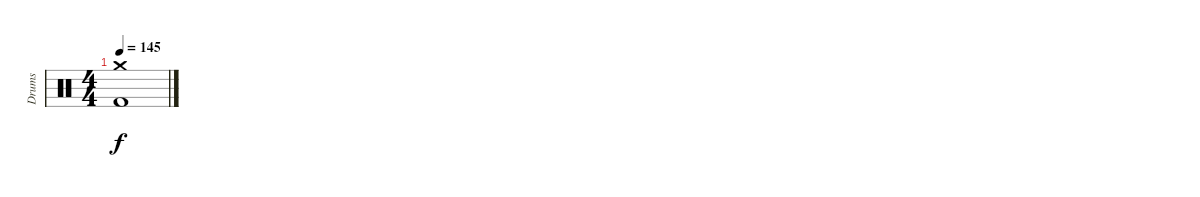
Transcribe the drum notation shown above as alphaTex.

\track ("Drums" "Drums") {instrument percussion}
\staff {score}
\articulation defaults
\ts (4 4)
\tempo 145
\clef neutral
\ks c
("Crash medium (hit)" "Kick (hit) 2").1{dy f}
